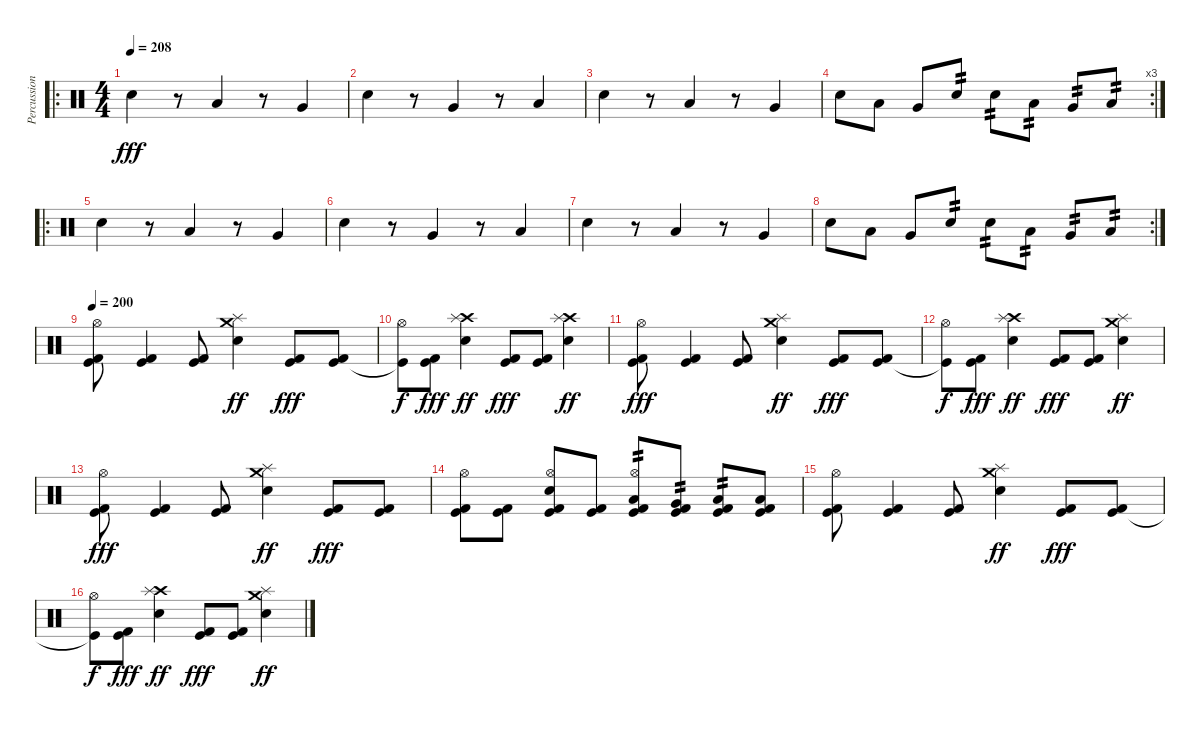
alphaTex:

\track ("Percussion" "Percussion") {instrument percussion}
\staff {score}
\articulation defaults
\ro
\ts (4 4)
\tempo 208
\clef neutral
\ks c "Electric Snare (hit)".4{dy fff}
r.8 "Low Tom (hit)".4 r.8 "Very Low Tom (hit)".4 |
"Electric Snare (hit)".4 r.8 "Very Low Tom (hit)".4 r.8 "Low Floor Tom (hit)".4 |
"Electric Snare (hit)".4 r.8 "Low Tom (hit)".4 r.8 "Very Low Tom (hit)".4 |
\rc 3 "Electric Snare (hit)".8 "Low Tom (hit)".8 "Very Low Tom (hit)".8 "Electric Snare (hit)".8{tp 2} "Electric Snare (hit)".8{tp 2} "Low Tom (hit)".8{tp 2} "Very Low Tom (hit)".8{tp 2} "Low Floor Tom (hit)".8{tp 2}
|
\ro "Electric Snare (hit)".4
r.8 "Low Tom (hit)".4 r.8 "Very Low Tom (hit)".4 |
"Electric Snare (hit)".4 r.8 "Very Low Tom (hit)".4 r.8 "Low Floor Tom (hit)".4 |
"Electric Snare (hit)".4 r.8 "Low Tom (hit)".4 r.8 "Very Low Tom (hit)".4 |
\rc 2 "Electric Snare (hit)".8 "Low Tom (hit)".8 "Very Low Tom (hit)".8 "Electric Snare (hit)".8{tp 2} "Electric Snare (hit)".8{tp 2} "Low Tom (hit)".8{tp 2} "Very Low Tom (hit)".8{tp 2} "Low Floor Tom (hit)".8{tp 2}
|
\tempo 200
("Hi-Hat (open)" "Kick (hit) 2" "Kick (hit)").8 ("Kick (hit) 2" "Kick (hit)").4 ("Kick (hit) 2" "Kick (hit)").8 ("Crash medium (hit)" "Splash (hit)" "Electric Snare (hit)").4{dy ff} ("Kick (hit) 2" "Kick (hit)").8{dy fff} ("Kick (hit) 2" "Kick (hit)").8 |
("Hi-Hat (open)" "Kick (hit)"{t}).8{dy f} ("Kick (hit) 2" "Kick (hit)").8{dy fff} ("Crash high (hit)" "Splash (hit)" "Electric Snare (hit)").4{dy ff} ("Kick (hit) 2" "Kick (hit)").8{dy fff} ("Kick (hit) 2" "Kick (hit)").8 ("Crash high (hit)" "Splash (hit)" "Electric Snare (hit)").4{dy ff} |
("Hi-Hat (open)" "Kick (hit) 2" "Kick (hit)").8{dy fff} ("Kick (hit) 2" "Kick (hit)").4 ("Kick (hit) 2" "Kick (hit)").8 ("Crash medium (hit)" "Splash (hit)" "Electric Snare (hit)").4{dy ff} ("Kick (hit) 2" "Kick (hit)").8{dy fff} ("Kick (hit) 2" "Kick (hit)").8 |
("Hi-Hat (open)" "Kick (hit)"{t}).8{dy f} ("Kick (hit) 2" "Kick (hit)").8{dy fff} ("Crash high (hit)" "Splash (hit)" "Electric Snare (hit)").4{dy ff} ("Kick (hit) 2" "Kick (hit)").8{dy fff} ("Kick (hit) 2" "Kick (hit)").8 ("Crash medium (hit)" "Splash (hit)" "Electric Snare (hit)").4{dy ff} |
("Hi-Hat (open)" "Kick (hit) 2" "Kick (hit)").8{dy fff} ("Kick (hit) 2" "Kick (hit)").4 ("Kick (hit) 2" "Kick (hit)").8 ("Crash medium (hit)" "Splash (hit)" "Electric Snare (hit)").4{dy ff} ("Kick (hit) 2" "Kick (hit)").8{dy fff} ("Kick (hit) 2" "Kick (hit)").8 |
("Hi-Hat (open)" "Kick (hit) 2" "Kick (hit)").8 ("Kick (hit) 2" "Kick (hit)").8 ("Hi-Hat (open)" "Electric Snare (hit)" "Kick (hit) 2" "Kick (hit)").8 ("Kick (hit) 2" "Kick (hit)").8 ("Hi-Hat (open)" "Low Tom (hit)" "Kick (hit) 2" "Kick (hit)").8{tp 2} ("Very Low Tom (hit)" "Kick (hit) 2" "Kick (hit)").8{tp 2} ("Low Floor Tom (hit)" "Kick (hit) 2" "Kick (hit)").8{tp 2} ("Low Floor Tom (hit)" "Kick (hit) 2" "Kick (hit)").8 |
("Hi-Hat (open)" "Kick (hit) 2" "Kick (hit)").8 ("Kick (hit) 2" "Kick (hit)").4 ("Kick (hit) 2" "Kick (hit)").8 ("Crash medium (hit)" "Splash (hit)" "Electric Snare (hit)").4{dy ff} ("Kick (hit) 2" "Kick (hit)").8{dy fff} ("Kick (hit) 2" "Kick (hit)").8 |
("Hi-Hat (open)" "Kick (hit)"{t}).8{dy f} ("Kick (hit) 2" "Kick (hit)").8{dy fff} ("Crash high (hit)" "Splash (hit)" "Electric Snare (hit)").4{dy ff} ("Kick (hit) 2" "Kick (hit)").8{dy fff} ("Kick (hit) 2" "Kick (hit)").8 ("Crash medium (hit)" "Splash (hit)" "Electric Snare (hit)").4{dy ff}
